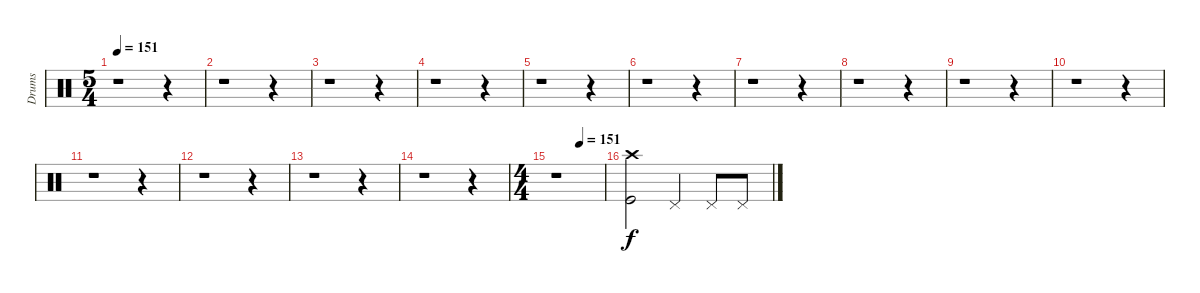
\track ("Drums" "Drums") {instrument percussion}
\staff {score}
\articulation defaults
\ts (5 4)
\tempo 151
\tempo 139
\tempo 151
\clef neutral
\ks c
r.1{dy f} r.4 |
r.1 r.4 |
r.1 r.4 |
r.1 r.4 |
r.1 r.4 |
r.1 r.4 |
r.1 r.4 |
r.1 r.4 |
r.1 r.4 |
r.1 r.4 |
r.1 r.4 |
r.1 r.4 |
r.1 r.4 |
r.1 r.4 |
\ts (4 4)
\tempo (151 0.5)
r.1 |
("Crash high (hit)" "Kick (hit)").2 "Pedal Hi-Hat (hit)".4 "Pedal Hi-Hat (hit)".8 "Pedal Hi-Hat (hit)".8
